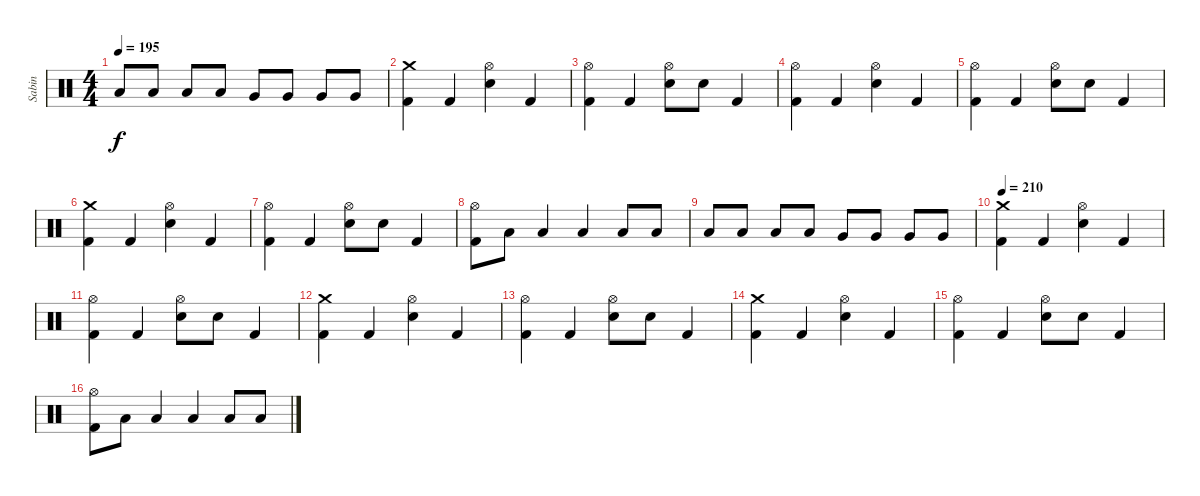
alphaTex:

\track ("Sabin" "Sabin") {instrument percussion}
\staff {score}
\articulation defaults
\ts (4 4)
\tempo 195
\clef neutral
\ks c "Low Tom (hit)".8{dy f} "Low Tom (hit)".8 "Low Tom (hit)".8 "Low Tom (hit)".8 "Very Low Tom (hit)".8 "Very Low Tom (hit)".8 "Very Low Tom (hit)".8 "Very Low Tom (hit)".8
|
("Crash medium (hit)" "Kick (hit) 2").4 "Kick (hit) 2".4 ("Electric Snare (hit)" "Hi-Hat (open)").4 "Kick (hit) 2".4 |
("Hi-Hat (open)" "Kick (hit) 2").4 "Kick (hit) 2".4 ("Electric Snare (hit)" "Hi-Hat (open)").8 "Electric Snare (hit)".8 "Kick (hit) 2".4 |
("Hi-Hat (open)" "Kick (hit) 2").4 "Kick (hit) 2".4 ("Electric Snare (hit)" "Hi-Hat (open)").4 "Kick (hit) 2".4 |
("Hi-Hat (open)" "Kick (hit) 2").4 "Kick (hit) 2".4 ("Electric Snare (hit)" "Hi-Hat (open)").8 "Electric Snare (hit)".8 "Kick (hit) 2".4 |
("Crash medium (hit)" "Kick (hit) 2").4 "Kick (hit) 2".4 ("Electric Snare (hit)" "Hi-Hat (open)").4 "Kick (hit) 2".4 |
("Hi-Hat (open)" "Kick (hit) 2").4 "Kick (hit) 2".4 ("Electric Snare (hit)" "Hi-Hat (open)").8 "Electric Snare (hit)".8 "Kick (hit) 2".4 |
("Hi-Hat (open)" "Kick (hit) 2").8 "Low Tom (hit)".8 "Low Tom (hit)".4 "Low Tom (hit)".4 "Low Tom (hit)".8 "Low Tom (hit)".8 |
"Low Tom (hit)".8 "Low Tom (hit)".8 "Low Tom (hit)".8 "Low Tom (hit)".8 "Very Low Tom (hit)".8 "Very Low Tom (hit)".8 "Very Low Tom (hit)".8 "Very Low Tom (hit)".8 |
\tempo 210
("Crash medium (hit)" "Kick (hit) 2").4 "Kick (hit) 2".4 ("Electric Snare (hit)" "Hi-Hat (open)").4 "Kick (hit) 2".4 |
("Hi-Hat (open)" "Kick (hit) 2").4 "Kick (hit) 2".4 ("Electric Snare (hit)" "Hi-Hat (open)").8 "Electric Snare (hit)".8 "Kick (hit) 2".4 |
("Crash medium (hit)" "Kick (hit) 2").4 "Kick (hit) 2".4 ("Electric Snare (hit)" "Hi-Hat (open)").4 "Kick (hit) 2".4 |
("Hi-Hat (open)" "Kick (hit) 2").4 "Kick (hit) 2".4 ("Electric Snare (hit)" "Hi-Hat (open)").8 "Electric Snare (hit)".8 "Kick (hit) 2".4 |
("Crash medium (hit)" "Kick (hit) 2").4 "Kick (hit) 2".4 ("Electric Snare (hit)" "Hi-Hat (open)").4 "Kick (hit) 2".4 |
("Hi-Hat (open)" "Kick (hit) 2").4 "Kick (hit) 2".4 ("Electric Snare (hit)" "Hi-Hat (open)").8 "Electric Snare (hit)".8 "Kick (hit) 2".4 |
("Hi-Hat (open)" "Kick (hit) 2").8 "Low Tom (hit)".8 "Low Tom (hit)".4 "Low Tom (hit)".4 "Low Tom (hit)".8 "Low Tom (hit)".8
